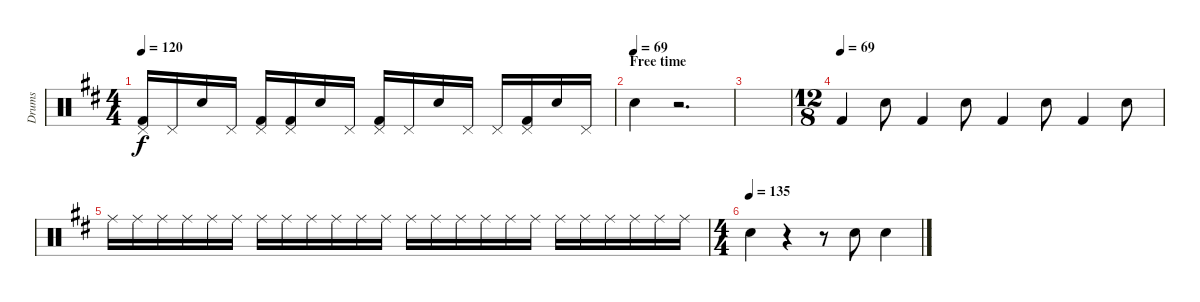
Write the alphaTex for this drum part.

\track ("Drums" "Drums") {instrument percussion}
\staff {score}
\articulation defaults
\ts (4 4)
\tempo 120
\clef neutral
\ks d
("Pedal Hi-Hat (hit)" "Kick (hit) 2").16{dy f} "Pedal Hi-Hat (hit)".16 "Electric Snare (hit)".16 "Pedal Hi-Hat (hit)".16 ("Pedal Hi-Hat (hit)" "Kick (hit) 2").16 ("Pedal Hi-Hat (hit)" "Kick (hit) 2").16 "Electric Snare (hit)".16 "Pedal Hi-Hat (hit)".16 ("Pedal Hi-Hat (hit)" "Kick (hit) 2").16 "Pedal Hi-Hat (hit)".16 "Electric Snare (hit)".16 "Pedal Hi-Hat (hit)".16 "Pedal Hi-Hat (hit)".16 ("Pedal Hi-Hat (hit)" "Kick (hit) 2").16 "Electric Snare (hit)".16 "Pedal Hi-Hat (hit)".16 |
\section ("" "Free time")
\tempo (69)
"Electric Snare (hit)".4 r.2{d} |
|
\ts (12 8)
\tempo (69)
"Kick (hit) 2".4 "Electric Snare (hit)".8 "Kick (hit) 2".4 "Electric Snare (hit)".8 "Kick (hit) 2".4 "Electric Snare (hit)".8 "Kick (hit) 2".4 "Electric Snare (hit)".8 |
"Ride (middle)".16 "Ride (middle)".16 "Ride (middle)".16 "Ride (middle)".16 "Ride (middle)".16 "Ride (middle)".16 "Ride (middle)".16 "Ride (middle)".16 "Ride (middle)".16 "Ride (middle)".16 "Ride (middle)".16 "Ride (middle)".16 "Ride (middle)".16 "Ride (middle)".16 "Ride (middle)".16 "Ride (middle)".16 "Ride (middle)".16 "Ride (middle)".16 "Ride (middle)".16 "Ride (middle)".16 "Ride (middle)".16 "Ride (middle)".16 "Ride (middle)".16 "Ride (middle)".16 |
\ts (4 4)
\tempo (135)
"Electric Snare (hit)".4 r.4 r.8 "Electric Snare (hit)".8 "Electric Snare (hit)".4
